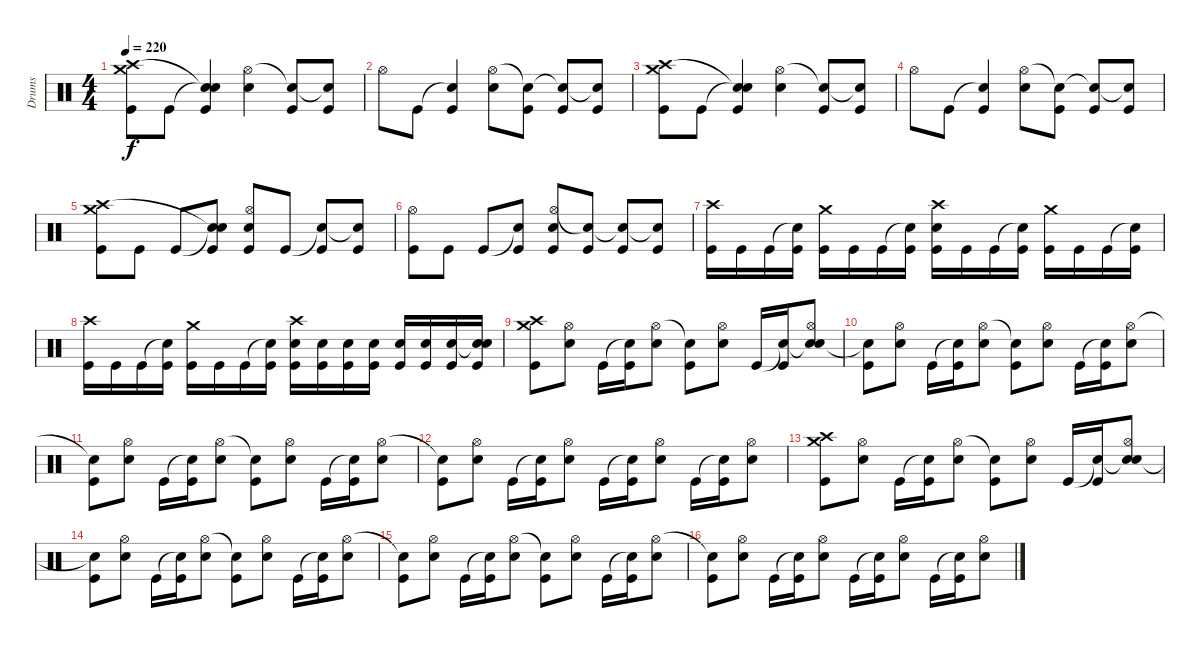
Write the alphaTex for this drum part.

\track ("Drums" "Drums") {instrument percussion}
\staff {score}
\articulation defaults
\ts (4 4)
\tempo 220
\clef neutral
\ks c
("Crash medium (hit)" "Crash high (hit)" "Kick (hit)").8{dy f} "Kick (hit)".8 ("Snare (hit)"{t} "Snare (hit)"{t} "Kick (hit)").4 ("Hi-Hat (open)" "Electric Snare (hit)").4 ("Snare (hit)"{t} "Kick (hit)").8 ("Snare (hit)"{t} "Kick (hit)").8 |
"Hi-Hat (open)".8 "Kick (hit)".8 ("Snare (hit)"{t} "Kick (hit)").4 ("Hi-Hat (open)" "Electric Snare (hit)").8 ("Snare (hit)"{t} "Kick (hit)").8 ("Snare (hit)"{t} "Kick (hit)").8 ("Snare (hit)"{t} "Kick (hit)").8 |
("Crash medium (hit)" "Crash high (hit)" "Kick (hit)").8 "Kick (hit)".8 ("Snare (hit)"{t} "Snare (hit)"{t} "Kick (hit)").4 ("Hi-Hat (open)" "Electric Snare (hit)").4 ("Snare (hit)"{t} "Kick (hit)").8 ("Snare (hit)"{t} "Kick (hit)").8 |
"Hi-Hat (open)".8 "Kick (hit)".8 ("Snare (hit)"{t} "Kick (hit)").4 ("Hi-Hat (open)" "Electric Snare (hit)").8 ("Snare (hit)"{t} "Kick (hit)").8 ("Snare (hit)"{t} "Kick (hit)").8 ("Snare (hit)"{t} "Kick (hit)").8 |
("Crash medium (hit)" "Crash high (hit)" "Kick (hit)").8 "Kick (hit)".8 "Kick (hit)".8 ("Snare (hit)"{t} "Snare (hit)"{t} "Kick (hit)").8 ("Hi-Hat (open)" "Electric Snare (hit)" "Kick (hit)").8 "Kick (hit)".8 ("Snare (hit)"{t} "Kick (hit)").8 ("Snare (hit)"{t} "Kick (hit)").8 |
("Hi-Hat (open)" "Kick (hit)").8 "Kick (hit)".8 "Kick (hit)".8 ("Snare (hit)"{t} "Kick (hit)").8 ("Hi-Hat (open)" "Electric Snare (hit)" "Kick (hit)").8 ("Snare (hit)"{t} "Kick (hit)").8 ("Snare (hit)"{t} "Kick (hit)").8 ("Snare (hit)"{t} "Kick (hit)").8 |
("Crash high (hit)" "Kick (hit)").16 "Kick (hit)".16 "Kick (hit)".16 ("Snare (hit)"{t} "Kick (hit)").16 ("Crash medium (hit)" "Kick (hit)").16 "Kick (hit)".16 "Kick (hit)".16 ("Snare (hit)"{t} "Kick (hit)").16 ("Crash high (hit)" "Electric Snare (hit)" "Kick (hit)").16 "Kick (hit)".16 "Kick (hit)".16 ("Snare (hit)"{t} "Kick (hit)").16 ("Crash medium (hit)" "Kick (hit)").16 "Kick (hit)".16 "Kick (hit)".16 ("Snare (hit)"{t} "Kick (hit)").16 |
("Crash high (hit)" "Kick (hit)").16 "Kick (hit)".16 "Kick (hit)".16 ("Snare (hit)"{t} "Kick (hit)").16 ("Crash medium (hit)" "Kick (hit)").16 "Kick (hit)".16 "Kick (hit)".16 ("Snare (hit)"{t} "Kick (hit)").16 ("Crash high (hit)" "Electric Snare (hit)" "Kick (hit)").16 ("Electric Snare (hit)" "Kick (hit)").16 ("Electric Snare (hit)" "Kick (hit)").16 ("Electric Snare (hit)" "Kick (hit)").16 ("Electric Snare (hit)" "Kick (hit)").16 ("Electric Snare (hit)" "Kick (hit)").16 ("Electric Snare (hit)" "Kick (hit)").16 ("Snare (hit)"{t} "Electric Snare (hit)" "Kick (hit)").16 |
("Crash medium (hit)" "Crash high (hit)" "Kick (hit)").8 ("Hi-Hat (open)" "Electric Snare (hit)").8 "Kick (hit)".16 ("Snare (hit)"{t} "Kick (hit)").16 ("Hi-Hat (open)" "Electric Snare (hit)").8 ("Snare (hit)"{t} "Kick (hit)").8 ("Hi-Hat (open)" "Electric Snare (hit)").8 "Kick (hit)".16 ("Snare (hit)"{t} "Kick (hit)").16 ("Snare (hit)"{t} "Hi-Hat (open)" "Electric Snare (hit)").8 |
("Snare (hit)"{t} "Kick (hit)").8 ("Hi-Hat (open)" "Electric Snare (hit)").8 "Kick (hit)".16 ("Snare (hit)"{t} "Kick (hit)").16 ("Hi-Hat (open)" "Electric Snare (hit)").8 ("Snare (hit)"{t} "Kick (hit)").8 ("Hi-Hat (open)" "Electric Snare (hit)").8 "Kick (hit)".16 ("Snare (hit)"{t} "Kick (hit)").16 ("Hi-Hat (open)" "Electric Snare (hit)").8 |
("Snare (hit)"{t} "Kick (hit)").8 ("Hi-Hat (open)" "Electric Snare (hit)").8 "Kick (hit)".16 ("Snare (hit)"{t} "Kick (hit)").16 ("Hi-Hat (open)" "Electric Snare (hit)").8 ("Snare (hit)"{t} "Kick (hit)").8 ("Hi-Hat (open)" "Electric Snare (hit)").8 "Kick (hit)".16 ("Snare (hit)"{t} "Kick (hit)").16 ("Hi-Hat (open)" "Electric Snare (hit)").8 |
("Snare (hit)"{t} "Kick (hit)").8 ("Hi-Hat (open)" "Electric Snare (hit)").8 "Kick (hit)".16 ("Snare (hit)"{t} "Kick (hit)").16 ("Hi-Hat (open)" "Electric Snare (hit)").8 "Kick (hit)".16 ("Snare (hit)"{t} "Kick (hit)").16 ("Hi-Hat (open)" "Electric Snare (hit)").8 "Kick (hit)".16 ("Snare (hit)"{t} "Kick (hit)").16 ("Hi-Hat (open)" "Electric Snare (hit)").8 |
("Crash medium (hit)" "Crash high (hit)" "Kick (hit)").8 ("Hi-Hat (open)" "Electric Snare (hit)").8 "Kick (hit)".16 ("Snare (hit)"{t} "Kick (hit)").16 ("Hi-Hat (open)" "Electric Snare (hit)").8 ("Snare (hit)"{t} "Kick (hit)").8 ("Hi-Hat (open)" "Electric Snare (hit)").8 "Kick (hit)".16 ("Snare (hit)"{t} "Kick (hit)").16 ("Snare (hit)"{t} "Hi-Hat (open)" "Electric Snare (hit)").8 |
("Snare (hit)"{t} "Kick (hit)").8 ("Hi-Hat (open)" "Electric Snare (hit)").8 "Kick (hit)".16 ("Snare (hit)"{t} "Kick (hit)").16 ("Hi-Hat (open)" "Electric Snare (hit)").8 ("Snare (hit)"{t} "Kick (hit)").8 ("Hi-Hat (open)" "Electric Snare (hit)").8 "Kick (hit)".16 ("Snare (hit)"{t} "Kick (hit)").16 ("Hi-Hat (open)" "Electric Snare (hit)").8 |
("Snare (hit)"{t} "Kick (hit)").8 ("Hi-Hat (open)" "Electric Snare (hit)").8 "Kick (hit)".16 ("Snare (hit)"{t} "Kick (hit)").16 ("Hi-Hat (open)" "Electric Snare (hit)").8 ("Snare (hit)"{t} "Kick (hit)").8 ("Hi-Hat (open)" "Electric Snare (hit)").8 "Kick (hit)".16 ("Snare (hit)"{t} "Kick (hit)").16 ("Hi-Hat (open)" "Electric Snare (hit)").8 |
("Snare (hit)"{t} "Kick (hit)").8 ("Hi-Hat (open)" "Electric Snare (hit)").8 "Kick (hit)".16 ("Snare (hit)"{t} "Kick (hit)").16 ("Hi-Hat (open)" "Electric Snare (hit)").8 "Kick (hit)".16 ("Snare (hit)"{t} "Kick (hit)").16 ("Hi-Hat (open)" "Electric Snare (hit)").8 "Kick (hit)".16 ("Snare (hit)"{t} "Kick (hit)").16 ("Hi-Hat (open)" "Electric Snare (hit)").8
